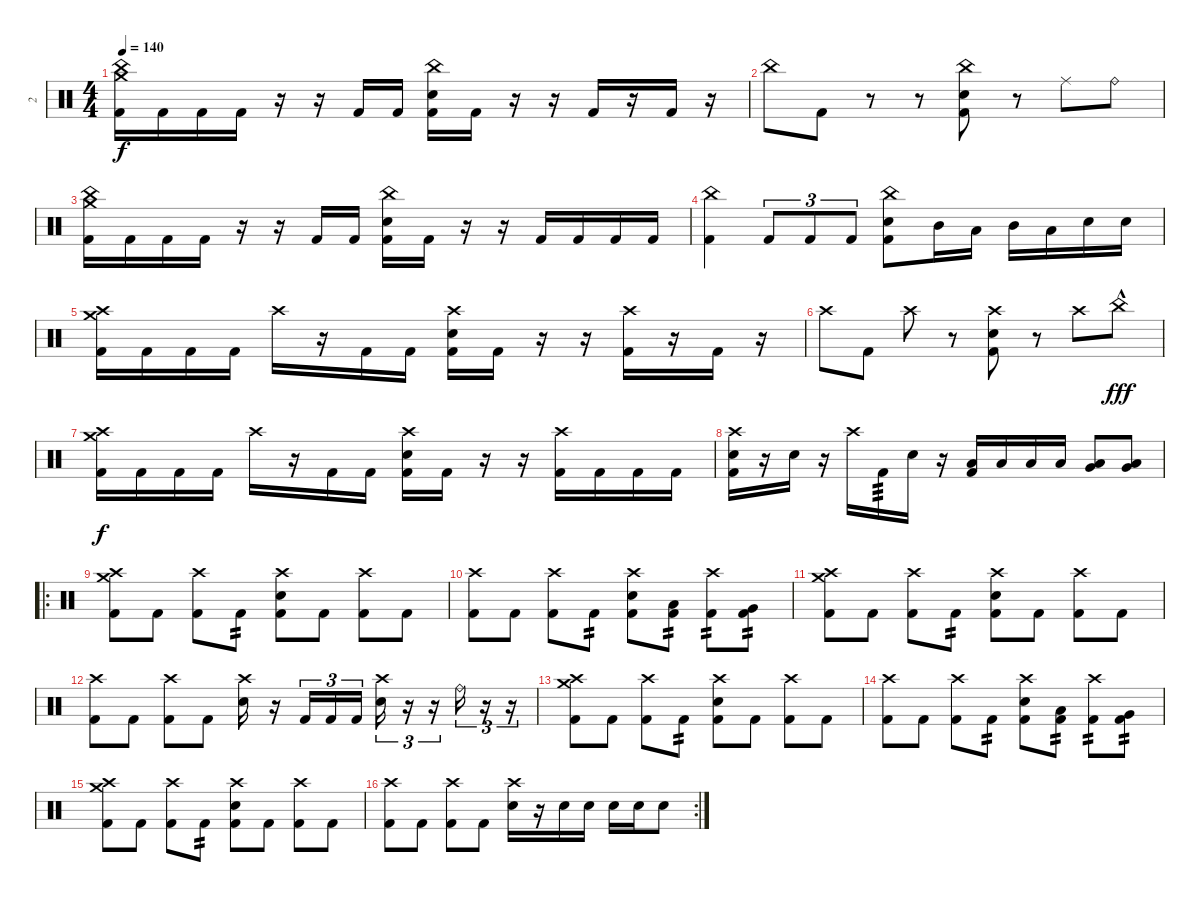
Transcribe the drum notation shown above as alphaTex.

\track ("2" "2") {instrument percussion}
\staff {score}
\articulation defaults
\ts (4 4)
\tempo 140
\clef neutral
\ks c
("Crash medium (hit)" "China (hit)" "Kick (hit) 2").16{dy f} "Kick (hit) 2".16 "Kick (hit) 2".16 "Kick (hit) 2".16 r.16 r.16 "Kick (hit) 2".16 "Kick (hit) 2".16 ("Snare (hit) 2" "China (hit)" "Kick (hit) 2").16 "Kick (hit) 2".16 r.16 r.16 "Kick (hit) 2".16 r.16 "Kick (hit) 2".16 r.16 |
"China (hit)".8 "Kick (hit) 2".8 r.8 r.8 ("Snare (hit) 2" "China (hit)" "Kick (hit) 2").8 r.8 "Ride (middle)".8 "Ride (bell)".8 |
("China (hit)" "Crash medium (hit)" "Kick (hit) 2").16 "Kick (hit) 2".16 "Kick (hit) 2".16 "Kick (hit) 2".16 r.16 r.16 "Kick (hit) 2".16 "Kick (hit) 2".16 ("China (hit)" "Snare (hit) 2" "Kick (hit) 2").16 "Kick (hit) 2".16 r.16 r.16 "Kick (hit) 2".16 "Kick (hit) 2".16 "Kick (hit) 2".16 "Kick (hit) 2".16 |
("China (hit)" "Kick (hit) 2").4 "Kick (hit) 2".8{tu (3 2)} "Kick (hit) 2".8{tu (3 2)} "Kick (hit) 2".8{tu (3 2)} ("Snare (hit) 2" "China (hit)" "Kick (hit) 2").8 "Mid Tom (hit)".16 "Low Tom (hit)".16 "Mid Tom (hit)".16 "Low Tom (hit)".16 "Electric Snare (hit)".16 "Electric Snare (hit)".16 |
("Crash high (hit)" "Crash medium (hit)" "Kick (hit) 2").16 "Kick (hit) 2".16 "Kick (hit) 2".16 "Kick (hit) 2".16 "Crash high (hit)".16 r.16 "Kick (hit) 2".16 "Kick (hit) 2".16 ("Snare (hit) 2" "Crash high (hit)" "Kick (hit) 2").16 "Kick (hit) 2".16 r.16 r.16 ("Crash high (hit)" "Kick (hit) 2").16 r.16 "Kick (hit) 2".16 r.16 |
"Crash high (hit)".8 "Kick (hit) 2".8 "Crash high (hit)".8 r.8 ("Snare (hit) 2" "Crash high (hit)" "Kick (hit) 2").8 r.8 "Crash high (hit)".8 "China (hit)"{hac}.8{dy fff} |
("Crash high (hit)" "Crash medium (hit)" "Kick (hit) 2").16{dy f} "Kick (hit) 2".16 "Kick (hit) 2".16 "Kick (hit) 2".16 "Crash high (hit)".16 r.16 "Kick (hit) 2".16 "Kick (hit) 2".16 ("Crash high (hit)" "Snare (hit) 2" "Kick (hit) 2").16 "Kick (hit) 2".16 r.16 r.16 ("Crash high (hit)" "Kick (hit) 2").16 "Kick (hit) 2".16 "Kick (hit) 2".16 "Kick (hit) 2".16 |
("Crash high (hit)" "Snare (hit) 2" "Kick (hit) 2").16 r.16 "Snare (hit) 2".16 r.16 "Crash high (hit)".16 "Kick (hit) 2".16{tp 3} "Snare (hit) 2".16 r.16 ("Low Floor Tom (hit)" "Kick (hit) 2").16 "Low Floor Tom (hit)".16 "Low Tom (hit)".16 "Low Tom (hit)".16 ("Very Low Tom (hit)" "Low Floor Tom (hit)").8 ("Very Low Tom (hit)" "Low Floor Tom (hit)").8 |
\ro
("Crash medium (hit)" "Crash high (hit)" "Kick (hit) 2").8 "Kick (hit) 2".8 ("Crash high (hit)" "Kick (hit) 2").8 "Kick (hit) 2".8{tp 2} ("Crash high (hit)" "Snare (hit) 2" "Kick (hit) 2").8 "Kick (hit) 2".8 ("Crash high (hit)" "Kick (hit) 2").8 "Kick (hit) 2".8 |
("Crash high (hit)" "Kick (hit) 2").8 "Kick (hit) 2".8 ("Crash high (hit)" "Kick (hit) 2").8 "Kick (hit) 2".8{tp 2} ("Crash high (hit)" "Snare (hit) 2" "Kick (hit) 2").8 ("Low Floor Tom (hit)" "Kick (hit) 2").8{tp 2} ("Crash high (hit)" "Kick (hit) 2").8{tp 2} ("Very Low Tom (hit)" "Kick (hit) 2").8{tp 2} |
("Crash medium (hit)" "Crash high (hit)" "Kick (hit) 2").8 "Kick (hit) 2".8 ("Crash high (hit)" "Kick (hit) 2").8 "Kick (hit) 2".8{tp 2} ("Crash high (hit)" "Snare (hit) 2" "Kick (hit) 2").8 "Kick (hit) 2".8 ("Crash high (hit)" "Kick (hit) 2").8 "Kick (hit) 2".8 |
("Crash high (hit)" "Kick (hit) 2").8 "Kick (hit) 2".8 ("Crash high (hit)" "Kick (hit) 2").8 "Kick (hit) 2".8 ("Crash high (hit)" "Snare (hit) 2").16 r.16 "Kick (hit) 2".16{tu (3 2)} "Kick (hit) 2".16{tu (3 2)} "Kick (hit) 2".16{tu (3 2)} ("Crash high (hit)" "Snare (hit) 2").16{tu (3 2)} r.16{tu (3 2)} r.16{tu (3 2)} "Ride (bell)".16{tu (3 2)} r.16{tu (3 2)} r.16{tu (3 2)} |
("Crash medium (hit)" "Crash high (hit)" "Kick (hit) 2").8 "Kick (hit) 2".8 ("Crash high (hit)" "Kick (hit) 2").8 "Kick (hit) 2".8{tp 2} ("Crash high (hit)" "Snare (hit) 2" "Kick (hit) 2").8 "Kick (hit) 2".8 ("Crash high (hit)" "Kick (hit) 2").8 "Kick (hit) 2".8 |
("Crash high (hit)" "Kick (hit) 2").8 "Kick (hit) 2".8 ("Crash high (hit)" "Kick (hit) 2").8 "Kick (hit) 2".8{tp 2} ("Crash high (hit)" "Snare (hit) 2" "Kick (hit) 2").8 ("Low Floor Tom (hit)" "Kick (hit) 2").8{tp 2} ("Crash high (hit)" "Kick (hit) 2").8{tp 2} ("Very Low Tom (hit)" "Kick (hit) 2").8{tp 2} |
("Crash medium (hit)" "Crash high (hit)" "Kick (hit) 2").8 "Kick (hit) 2".8 ("Crash high (hit)" "Kick (hit) 2").8 "Kick (hit) 2".8{tp 2} ("Crash high (hit)" "Snare (hit) 2" "Kick (hit) 2").8 "Kick (hit) 2".8 ("Crash high (hit)" "Kick (hit) 2").8 "Kick (hit) 2".8 |
\rc 2
("Crash high (hit)" "Kick (hit) 2").8 "Kick (hit) 2".8 ("Crash high (hit)" "Kick (hit) 2").8 "Kick (hit) 2".8 ("Crash high (hit)" "Snare (hit) 2").16 r.16 "Snare (hit) 2".16 "Snare (hit) 2".16 "Snare (hit) 2".16 "Snare (hit) 2".16 "Snare (hit) 2".8
